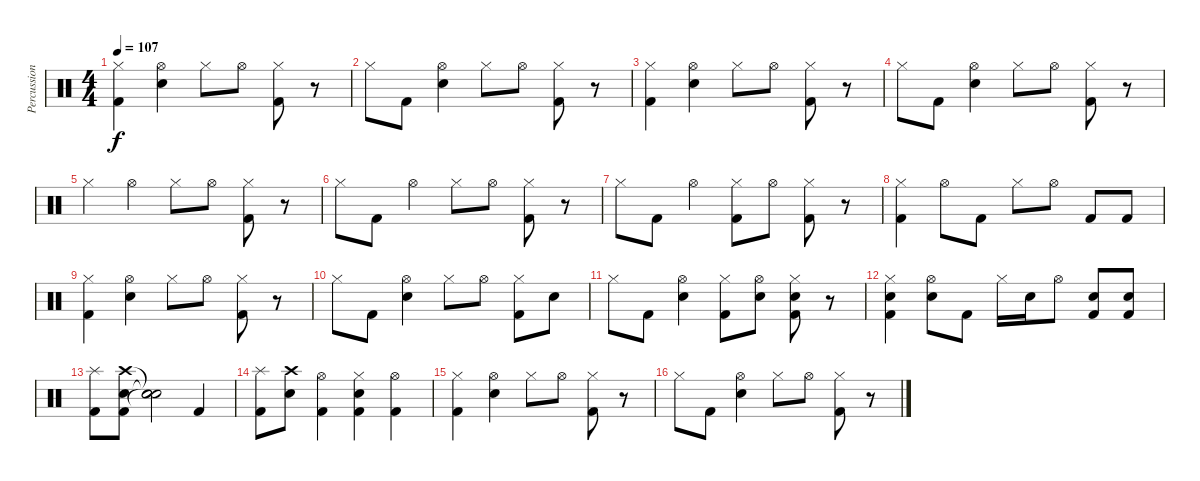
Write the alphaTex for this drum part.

\track ("Percussion" "Percussion") {instrument percussion}
\staff {score}
\articulation defaults
\ts (4 4)
\tempo 107
\clef neutral
\ks c
("Hi-Hat (closed)" "Kick (hit) 2").4{dy f} ("Hi-Hat (open)" "Snare (hit) 2").4 "Hi-Hat (closed)".8 "Hi-Hat (open)".8 ("Hi-Hat (closed)" "Kick (hit) 2").8 r.8 |
"Hi-Hat (closed)".8 "Kick (hit) 2".8 ("Hi-Hat (open)" "Snare (hit) 2").4 "Hi-Hat (closed)".8 "Hi-Hat (open)".8 ("Hi-Hat (closed)" "Kick (hit) 2").8 r.8 |
("Hi-Hat (closed)" "Kick (hit) 2").4 ("Hi-Hat (open)" "Snare (hit) 2").4 "Hi-Hat (closed)".8 "Hi-Hat (open)".8 ("Hi-Hat (closed)" "Kick (hit) 2").8 r.8 |
"Hi-Hat (closed)".8 "Kick (hit) 2".8 ("Hi-Hat (open)" "Snare (hit) 2").4 "Hi-Hat (closed)".8 "Hi-Hat (open)".8 ("Hi-Hat (closed)" "Kick (hit) 2").8 r.8 |
"Hi-Hat (closed)".4 "Hi-Hat (open)".4 "Hi-Hat (closed)".8 "Hi-Hat (open)".8 ("Hi-Hat (closed)" "Kick (hit) 2").8 r.8 |
"Hi-Hat (closed)".8 "Kick (hit) 2".8 "Hi-Hat (open)".4 "Hi-Hat (closed)".8 "Hi-Hat (open)".8 ("Hi-Hat (closed)" "Kick (hit) 2").8 r.8 |
"Hi-Hat (closed)".8 "Kick (hit) 2".8 "Hi-Hat (open)".4 ("Hi-Hat (closed)" "Kick (hit) 2").8 "Hi-Hat (open)".8 ("Hi-Hat (closed)" "Kick (hit) 2").8 r.8 |
("Hi-Hat (closed)" "Kick (hit) 2").4 "Hi-Hat (open)".8 "Kick (hit) 2".8 "Hi-Hat (closed)".8 "Hi-Hat (open)".8 "Kick (hit) 2".8 "Kick (hit) 2".8 |
("Hi-Hat (closed)" "Kick (hit) 2").4 ("Hi-Hat (open)" "Snare (hit) 2").4 "Hi-Hat (closed)".8 "Hi-Hat (open)".8 ("Hi-Hat (closed)" "Kick (hit) 2").8 r.8 |
"Hi-Hat (closed)".8 "Kick (hit) 2".8 ("Hi-Hat (open)" "Snare (hit) 2").4 "Hi-Hat (closed)".8 "Hi-Hat (open)".8 ("Hi-Hat (closed)" "Kick (hit) 2").8 "Snare (hit) 2".8 |
"Hi-Hat (closed)".8 "Kick (hit) 2".8 ("Hi-Hat (open)" "Snare (hit) 2").4 ("Hi-Hat (closed)" "Kick (hit) 2").8 ("Hi-Hat (open)" "Snare (hit) 2").8 ("Hi-Hat (closed)" "Snare (hit) 2" "Kick (hit) 2").8 r.8 |
("Hi-Hat (closed)" "Snare (hit) 2" "Kick (hit) 2").4 ("Hi-Hat (open)" "Snare (hit) 2").8 "Kick (hit) 2".8 "Hi-Hat (closed)".16 "Snare (hit) 2".16 "Hi-Hat (open)".8 ("Snare (hit) 2" "Kick (hit) 2").8 ("Snare (hit) 2" "Kick (hit) 2").8 |
("Splash (hit)" "Kick (hit) 2").8 ("Crash high (hit)" "Snare (hit) 2" "Kick (hit) 2").8 ("Snare (hit)"{t} "Snare (hit)"{t} "Snare (hit)"{t}).2 "Kick (hit) 2".4 |
("Splash (hit)" "Kick (hit) 2").8 ("Crash high (hit)" "Snare (hit) 2").8 ("Hi-Hat (open)" "Kick (hit) 2").4 ("Hi-Hat (closed)" "Snare (hit) 2" "Kick (hit) 2").4 ("Hi-Hat (open)" "Kick (hit) 2").4 |
("Hi-Hat (closed)" "Kick (hit) 2").4 ("Hi-Hat (open)" "Snare (hit) 2").4 "Hi-Hat (closed)".8 "Hi-Hat (open)".8 ("Hi-Hat (closed)" "Kick (hit) 2").8 r.8 |
"Hi-Hat (closed)".8 "Kick (hit) 2".8 ("Hi-Hat (open)" "Snare (hit) 2").4 "Hi-Hat (closed)".8 "Hi-Hat (open)".8 ("Hi-Hat (closed)" "Kick (hit) 2").8 r.8
